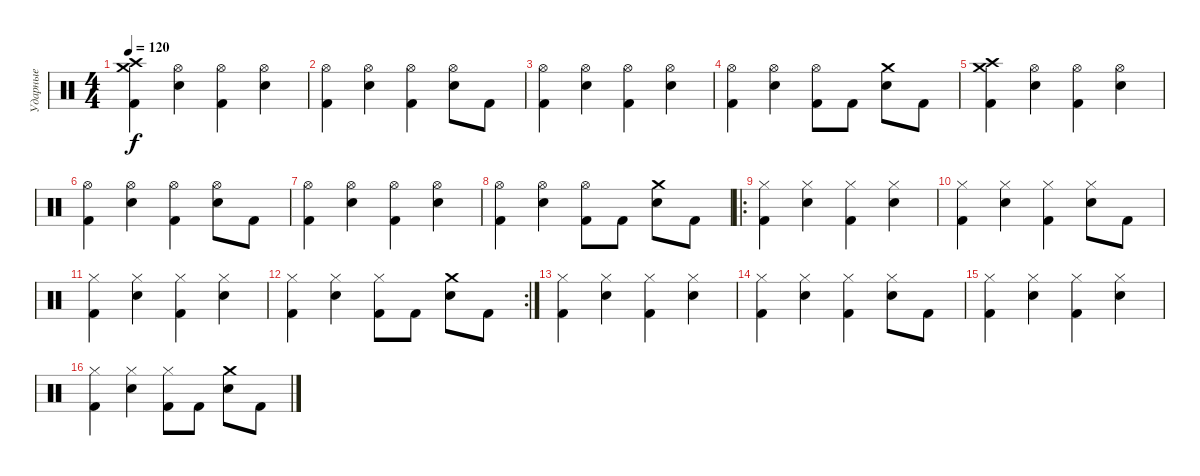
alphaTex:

\track ("Ударные" "Ударные") {instrument percussion}
\staff {score}
\articulation defaults
\ts (4 4)
\tempo 120
\clef neutral
\ks c
("Crash high (hit)" "Crash medium (hit)" "Kick (hit) 2").4{dy f} ("Hi-Hat (open)" "Electric Snare (hit)").4 ("Hi-Hat (open)" "Kick (hit) 2").4 ("Hi-Hat (open)" "Electric Snare (hit)").4 |
("Hi-Hat (open)" "Kick (hit) 2").4 ("Hi-Hat (open)" "Electric Snare (hit)").4 ("Hi-Hat (open)" "Kick (hit) 2").4 ("Hi-Hat (open)" "Electric Snare (hit)").8 "Kick (hit) 2".8 |
("Hi-Hat (open)" "Kick (hit) 2").4 ("Hi-Hat (open)" "Electric Snare (hit)").4 ("Hi-Hat (open)" "Kick (hit) 2").4 ("Hi-Hat (open)" "Electric Snare (hit)").4 |
("Hi-Hat (open)" "Kick (hit) 2").4 ("Hi-Hat (open)" "Electric Snare (hit)").4 ("Hi-Hat (open)" "Kick (hit) 2").8 "Kick (hit) 2".8 ("Crash medium (hit)" "Electric Snare (hit)").8 "Kick (hit) 2".8 |
("Crash high (hit)" "Crash medium (hit)" "Kick (hit) 2").4 ("Hi-Hat (open)" "Electric Snare (hit)").4 ("Hi-Hat (open)" "Kick (hit) 2").4 ("Hi-Hat (open)" "Electric Snare (hit)").4 |
("Hi-Hat (open)" "Kick (hit) 2").4 ("Hi-Hat (open)" "Electric Snare (hit)").4 ("Hi-Hat (open)" "Kick (hit) 2").4 ("Hi-Hat (open)" "Electric Snare (hit)").8 "Kick (hit) 2".8 |
("Hi-Hat (open)" "Kick (hit) 2").4 ("Hi-Hat (open)" "Electric Snare (hit)").4 ("Hi-Hat (open)" "Kick (hit) 2").4 ("Hi-Hat (open)" "Electric Snare (hit)").4 |
("Hi-Hat (open)" "Kick (hit) 2").4 ("Hi-Hat (open)" "Electric Snare (hit)").4 ("Hi-Hat (open)" "Kick (hit) 2").8 "Kick (hit) 2".8 ("Crash medium (hit)" "Electric Snare (hit)").8 "Kick (hit) 2".8 |
\ro
("Hi-Hat (closed)" "Kick (hit) 2").4 ("Hi-Hat (closed)" "Electric Snare (hit)").4 ("Hi-Hat (closed)" "Kick (hit) 2").4 ("Hi-Hat (closed)" "Electric Snare (hit)").4 |
("Hi-Hat (closed)" "Kick (hit) 2").4 ("Hi-Hat (closed)" "Electric Snare (hit)").4 ("Hi-Hat (closed)" "Kick (hit) 2").4 ("Hi-Hat (closed)" "Electric Snare (hit)").8 "Kick (hit) 2".8 |
("Hi-Hat (closed)" "Kick (hit) 2").4 ("Hi-Hat (closed)" "Electric Snare (hit)").4 ("Hi-Hat (closed)" "Kick (hit) 2").4 ("Hi-Hat (closed)" "Electric Snare (hit)").4 |
\rc 2
("Hi-Hat (closed)" "Kick (hit) 2").4 ("Hi-Hat (closed)" "Electric Snare (hit)").4 ("Hi-Hat (closed)" "Kick (hit) 2").8 "Kick (hit) 2".8 ("Crash medium (hit)" "Electric Snare (hit)").8 "Kick (hit) 2".8 |
("Hi-Hat (closed)" "Kick (hit) 2").4 ("Hi-Hat (closed)" "Electric Snare (hit)").4 ("Hi-Hat (closed)" "Kick (hit) 2").4 ("Hi-Hat (closed)" "Electric Snare (hit)").4 |
("Hi-Hat (closed)" "Kick (hit) 2").4 ("Hi-Hat (closed)" "Electric Snare (hit)").4 ("Hi-Hat (closed)" "Kick (hit) 2").4 ("Hi-Hat (closed)" "Electric Snare (hit)").8 "Kick (hit) 2".8 |
("Hi-Hat (closed)" "Kick (hit) 2").4 ("Hi-Hat (closed)" "Electric Snare (hit)").4 ("Hi-Hat (closed)" "Kick (hit) 2").4 ("Hi-Hat (closed)" "Electric Snare (hit)").4 |
("Hi-Hat (closed)" "Kick (hit) 2").4 ("Hi-Hat (closed)" "Electric Snare (hit)").4 ("Hi-Hat (closed)" "Kick (hit) 2").8 "Kick (hit) 2".8 ("Crash medium (hit)" "Electric Snare (hit)").8 "Kick (hit) 2".8
